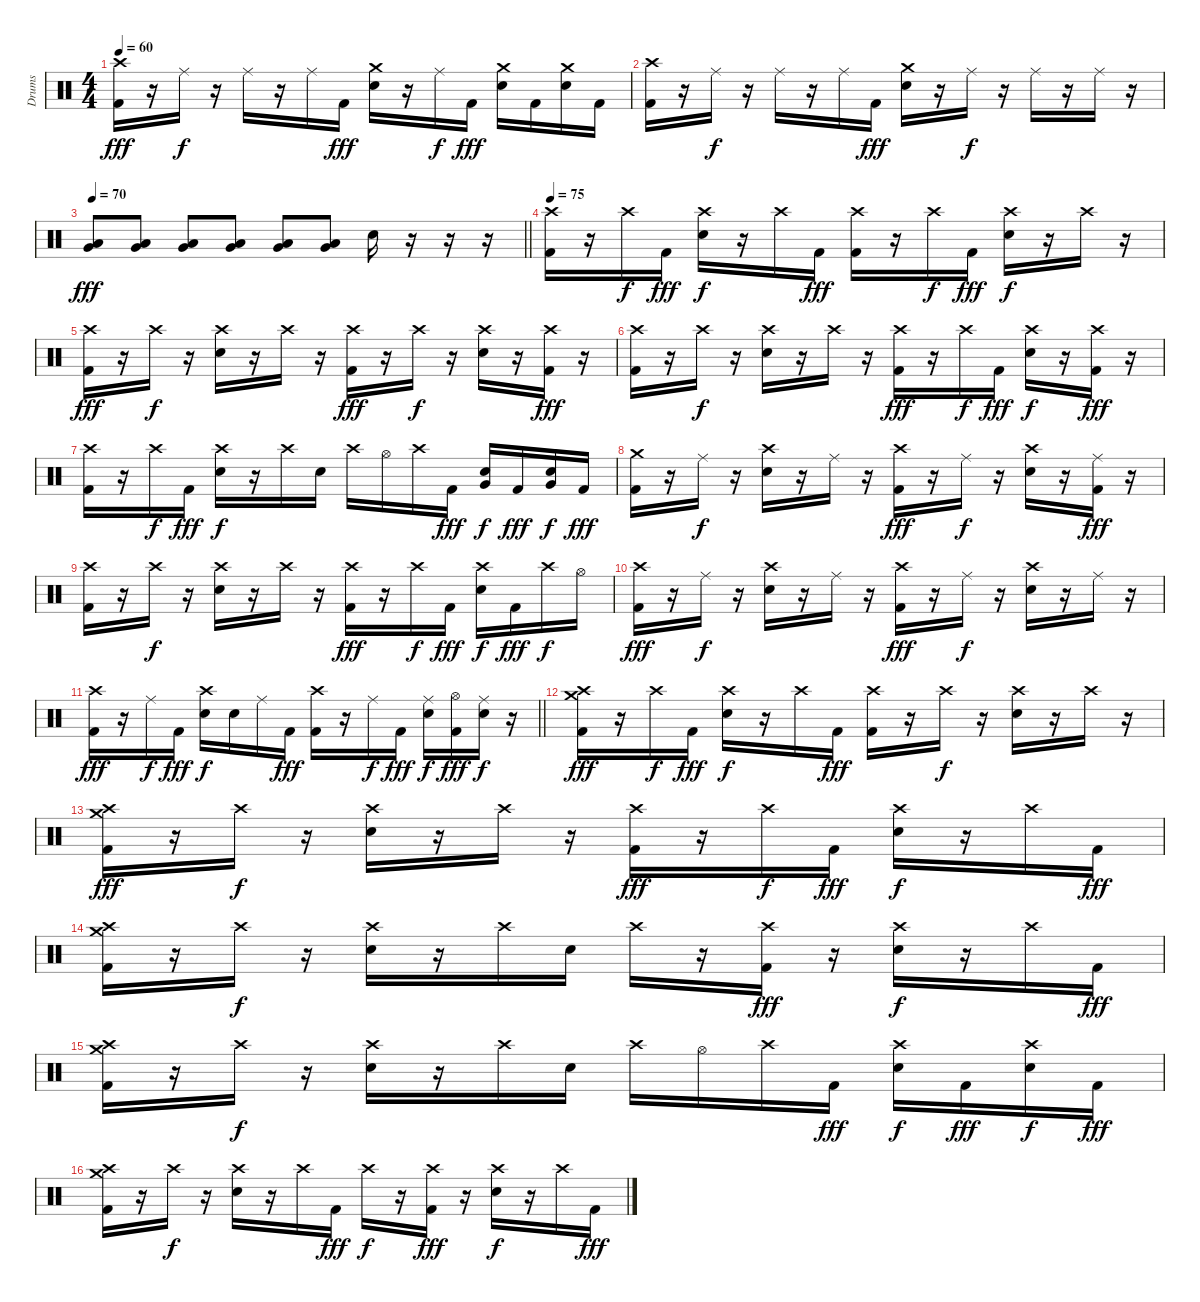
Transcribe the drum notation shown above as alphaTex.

\track ("Drums" "Drums") {instrument percussion}
\staff {score}
\articulation defaults
\ts (4 4)
\tempo 60
\clef neutral
\ks c
("Crash high (hit)" "Kick (hit) 2").16{dy fff} r.16 "Ride (middle)".16{dy f} r.16 "Ride (middle)".16 r.16 "Ride (middle)".16 "Kick (hit) 2".16{dy fff} ("Crash medium (hit)" "Electric Snare (hit)").16 r.16 "Ride (middle)".16{dy f} "Kick (hit) 2".16{dy fff} ("Crash medium (hit)" "Electric Snare (hit)").16 "Kick (hit) 2".16 ("Crash medium (hit)" "Electric Snare (hit)").16 "Kick (hit) 2".16 |
("Crash high (hit)" "Kick (hit) 2").16 r.16 "Ride (middle)".16{dy f} r.16 "Ride (middle)".16 r.16 "Ride (middle)".16 "Kick (hit) 2".16{dy fff} ("Crash medium (hit)" "Electric Snare (hit)").16 r.16 "Ride (middle)".16{dy f} r.16 "Ride (middle)".16 r.16 "Ride (middle)".16 r.16 |
\tempo 70
\barLineRight lightlight
("Low Floor Tom (hit)" "Very Low Tom (hit)").8{dy fff} ("Low Floor Tom (hit)" "Very Low Tom (hit)").8 ("Low Floor Tom (hit)" "Very Low Tom (hit)").8 ("Low Floor Tom (hit)" "Very Low Tom (hit)").8 ("Low Floor Tom (hit)" "Very Low Tom (hit)").8 ("Low Floor Tom (hit)" "Very Low Tom (hit)").8 "Electric Snare (hit)".16 r.16 r.16 r.16 |
\section ("" "")
\tempo 75
("Crash high (hit)" "Kick (hit) 2").16 r.16 "Crash high (hit)".16{dy f} "Kick (hit) 2".16{dy fff} ("Crash high (hit)" "Electric Snare (hit)").16{dy f} r.16 "Crash high (hit)".16 "Kick (hit) 2".16{dy fff} ("Crash high (hit)" "Kick (hit) 2").16 r.16 "Crash high (hit)".16{dy f} "Kick (hit) 2".16{dy fff} ("Crash high (hit)" "Electric Snare (hit)").16{dy f} r.16 "Crash high (hit)".16 r.16 |
("Crash high (hit)" "Kick (hit) 2").16{dy fff} r.16 "Crash high (hit)".16{dy f} r.16 ("Crash high (hit)" "Electric Snare (hit)").16 r.16 "Crash high (hit)".16 r.16 ("Crash high (hit)" "Kick (hit) 2").16{dy fff} r.16 "Crash high (hit)".16{dy f} r.16 ("Crash high (hit)" "Electric Snare (hit)").16 r.16 ("Crash high (hit)" "Kick (hit) 2").16{dy fff} r.16 |
("Crash high (hit)" "Kick (hit) 2").16 r.16 "Crash high (hit)".16{dy f} r.16 ("Crash high (hit)" "Electric Snare (hit)").16 r.16 "Crash high (hit)".16 r.16 ("Crash high (hit)" "Kick (hit) 2").16{dy fff} r.16 "Crash high (hit)".16{dy f} "Kick (hit) 2".16{dy fff} ("Crash high (hit)" "Electric Snare (hit)").16{dy f} r.16 ("Crash high (hit)" "Kick (hit) 2").16{dy fff} r.16 |
("Crash high (hit)" "Kick (hit) 2").16 r.16 "Crash high (hit)".16{dy f} "Kick (hit) 2".16{dy fff} ("Crash high (hit)" "Electric Snare (hit)").16{dy f} r.16 "Crash high (hit)".16 "Electric Snare (hit)".16 "Crash high (hit)".16 "Hi-Hat (open)".16 "Crash high (hit)".16 "Kick (hit) 2".16{dy fff} ("Very Low Tom (hit)" "Electric Snare (hit)").16{dy f} "Kick (hit) 2".16{dy fff} ("Very Low Tom (hit)" "Electric Snare (hit)").16{dy f} "Kick (hit) 2".16{dy fff} |
("Crash medium (hit)" "Kick (hit) 2").16 r.16 "Ride (middle)".16{dy f} r.16 ("Crash high (hit)" "Electric Snare (hit)").16 r.16 "Ride (middle)".16 r.16 ("Crash high (hit)" "Kick (hit) 2").16{dy fff} r.16 "Ride (middle)".16{dy f} r.16 ("Crash high (hit)" "Electric Snare (hit)").16 r.16 ("Ride (middle)" "Kick (hit) 2").16{dy fff} r.16 |
("Crash high (hit)" "Kick (hit) 2").16 r.16 "Crash high (hit)".16{dy f} r.16 ("Crash high (hit)" "Electric Snare (hit)").16 r.16 "Crash high (hit)".16 r.16 ("Crash high (hit)" "Kick (hit) 2").16{dy fff} r.16 "Crash high (hit)".16{dy f} "Kick (hit) 2".16{dy fff} ("Crash high (hit)" "Electric Snare (hit)").16{dy f} "Kick (hit) 2".16{dy fff} "Crash high (hit)".16{dy f} "Hi-Hat (open)".16 |
("Crash high (hit)" "Kick (hit) 2").16{dy fff} r.16 "Ride (middle)".16{dy f} r.16 ("Crash high (hit)" "Electric Snare (hit)").16 r.16 "Ride (middle)".16 r.16 ("Crash high (hit)" "Kick (hit) 2").16{dy fff} r.16 "Ride (middle)".16{dy f} r.16 ("Crash high (hit)" "Electric Snare (hit)").16 r.16 "Ride (middle)".16 r.16 |
\barLineRight lightlight
("Crash high (hit)" "Kick (hit) 2").16{dy fff} r.16 "Ride (middle)".16{dy f} "Kick (hit) 2".16{dy fff} ("Crash high (hit)" "Electric Snare (hit)").16{dy f} "Electric Snare (hit)".16 "Ride (middle)".16 "Kick (hit) 2".16{dy fff} ("Crash high (hit)" "Kick (hit) 2").16 r.16 "Ride (middle)".16{dy f} "Kick (hit) 2".16{dy fff} ("Ride (middle)" "Electric Snare (hit)").16{dy f} ("Hi-Hat (open)" "Kick (hit) 2").16{dy fff} ("Ride (middle)" "Electric Snare (hit)").16{dy f} r.16 |
\section ("" "")
("Crash high (hit)" "Crash medium (hit)" "Kick (hit) 2").16{dy fff} r.16 "Crash high (hit)".16{dy f} "Kick (hit) 2".16{dy fff} ("Crash high (hit)" "Electric Snare (hit)").16{dy f} r.16 "Crash high (hit)".16 "Kick (hit) 2".16{dy fff} ("Crash high (hit)" "Kick (hit) 2").16 r.16 "Crash high (hit)".16{dy f} r.16 ("Crash high (hit)" "Electric Snare (hit)").16 r.16 "Crash high (hit)".16 r.16 |
("Crash high (hit)" "Crash medium (hit)" "Kick (hit) 2").16{dy fff} r.16 "Crash high (hit)".16{dy f} r.16 ("Crash high (hit)" "Electric Snare (hit)").16 r.16 "Crash high (hit)".16 r.16 ("Crash high (hit)" "Kick (hit) 2").16{dy fff} r.16 "Crash high (hit)".16{dy f} "Kick (hit) 2".16{dy fff} ("Crash high (hit)" "Electric Snare (hit)").16{dy f} r.16 "Crash high (hit)".16 "Kick (hit) 2".16{dy fff} |
("Crash high (hit)" "Crash medium (hit)" "Kick (hit) 2").16 r.16 "Crash high (hit)".16{dy f} r.16 ("Crash high (hit)" "Electric Snare (hit)").16 r.16 "Crash high (hit)".16 "Electric Snare (hit)".16 "Crash high (hit)".16 r.16 ("Crash high (hit)" "Kick (hit) 2").16{dy fff} r.16 ("Crash high (hit)" "Electric Snare (hit)").16{dy f} r.16 "Crash high (hit)".16 "Kick (hit) 2".16{dy fff} |
("Crash high (hit)" "Crash medium (hit)" "Kick (hit) 2").16 r.16 "Crash high (hit)".16{dy f} r.16 ("Crash high (hit)" "Electric Snare (hit)").16 r.16 "Crash high (hit)".16 "Electric Snare (hit)".16 "Crash high (hit)".16 "Hi-Hat (open)".16 "Crash high (hit)".16 "Kick (hit) 2".16{dy fff} ("Crash high (hit)" "Electric Snare (hit)").16{dy f} "Kick (hit) 2".16{dy fff} ("Crash high (hit)" "Electric Snare (hit)").16{dy f} "Kick (hit) 2".16{dy fff} |
("Crash high (hit)" "Crash medium (hit)" "Kick (hit) 2").16 r.16 "Crash high (hit)".16{dy f} r.16 ("Crash high (hit)" "Electric Snare (hit)").16 r.16 "Crash high (hit)".16 "Kick (hit) 2".16{dy fff} "Crash high (hit)".16{dy f} r.16 ("Crash high (hit)" "Kick (hit) 2").16{dy fff} r.16 ("Crash high (hit)" "Electric Snare (hit)").16{dy f} r.16 "Crash high (hit)".16 "Kick (hit) 2".16{dy fff}
